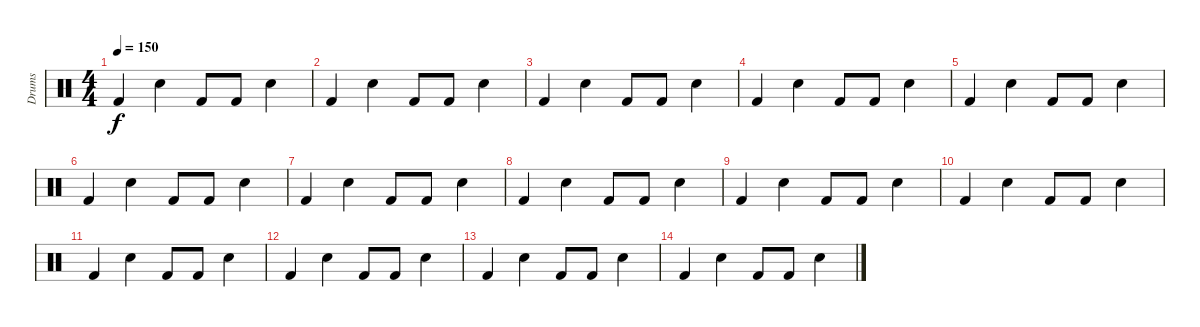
\track ("Drums" "Drums") {instrument percussion}
\staff {score}
\articulation defaults
\ts (4 4)
\tempo 150
\clef neutral
\ks c "Kick (hit) 2".4{dy f} "Snare (hit) 2".4 "Kick (hit) 2".8 "Kick (hit) 2".8 "Snare (hit) 2".4
|
"Kick (hit) 2".4 "Snare (hit) 2".4 "Kick (hit) 2".8 "Kick (hit) 2".8 "Snare (hit) 2".4 |
"Kick (hit) 2".4 "Snare (hit) 2".4 "Kick (hit) 2".8 "Kick (hit) 2".8 "Snare (hit) 2".4 |
"Kick (hit) 2".4 "Snare (hit) 2".4 "Kick (hit) 2".8 "Kick (hit) 2".8 "Snare (hit) 2".4 |
"Kick (hit) 2".4 "Snare (hit) 2".4 "Kick (hit) 2".8 "Kick (hit) 2".8 "Snare (hit) 2".4 |
"Kick (hit) 2".4 "Snare (hit) 2".4 "Kick (hit) 2".8 "Kick (hit) 2".8 "Snare (hit) 2".4 |
"Kick (hit) 2".4 "Snare (hit) 2".4 "Kick (hit) 2".8 "Kick (hit) 2".8 "Snare (hit) 2".4 |
"Kick (hit) 2".4 "Snare (hit) 2".4 "Kick (hit) 2".8 "Kick (hit) 2".8 "Snare (hit) 2".4 |
"Kick (hit) 2".4 "Snare (hit) 2".4 "Kick (hit) 2".8 "Kick (hit) 2".8 "Snare (hit) 2".4 |
"Kick (hit) 2".4 "Snare (hit) 2".4 "Kick (hit) 2".8 "Kick (hit) 2".8 "Snare (hit) 2".4 |
"Kick (hit) 2".4 "Snare (hit) 2".4 "Kick (hit) 2".8 "Kick (hit) 2".8 "Snare (hit) 2".4 |
"Kick (hit) 2".4 "Snare (hit) 2".4 "Kick (hit) 2".8 "Kick (hit) 2".8 "Snare (hit) 2".4 |
"Kick (hit) 2".4 "Snare (hit) 2".4 "Kick (hit) 2".8 "Kick (hit) 2".8 "Snare (hit) 2".4 |
"Kick (hit) 2".4 "Snare (hit) 2".4 "Kick (hit) 2".8 "Kick (hit) 2".8 "Snare (hit) 2".4
